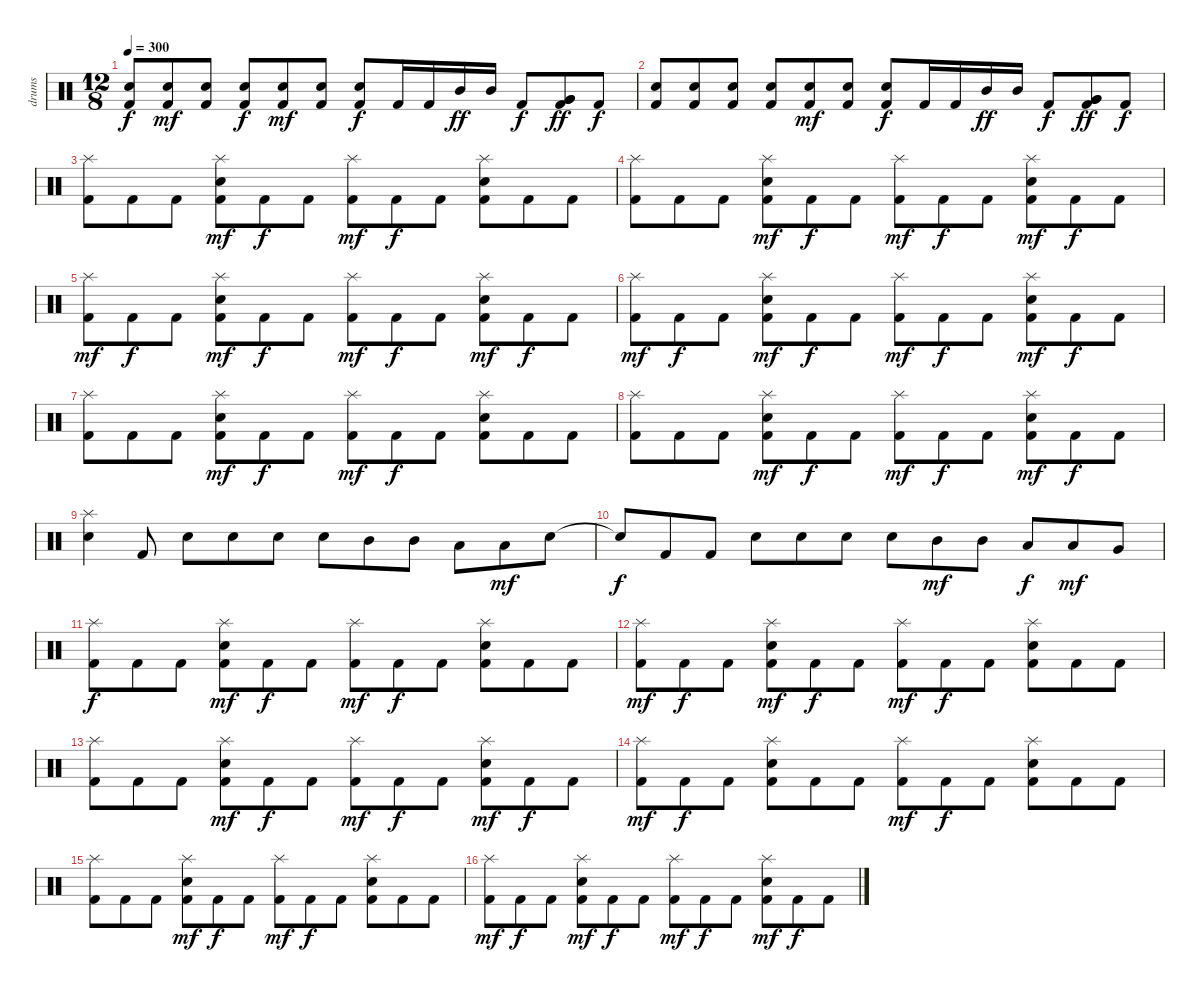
\track ("drums" "drums") {instrument percussion}
\staff {score}
\articulation defaults
\ts (12 8)
\tempo 300
\clef neutral
\ks c
("Snare (hit) 2" "Kick (hit) 2").8{dy f} ("Snare (hit) 2" "Kick (hit) 2").8{dy mf} ("Snare (hit) 2" "Kick (hit) 2").8 ("Snare (hit) 2" "Kick (hit) 2").8{dy f} ("Snare (hit) 2" "Kick (hit) 2").8{dy mf} ("Snare (hit) 2" "Kick (hit) 2").8 ("Snare (hit) 2" "Kick (hit) 2").8{dy f} "Kick (hit) 2".16 "Kick (hit) 2".16 "Mid Tom (hit)".16{dy ff} "Mid Tom (hit)".16 "Kick (hit) 2".8{dy f} ("Very Low Tom (hit)" "Kick (hit) 2" "Very Low Tom (hit)").8{dy ff} "Kick (hit) 2".8{dy f} |
("Snare (hit) 2" "Kick (hit) 2").8 ("Snare (hit) 2" "Kick (hit) 2").8 ("Snare (hit) 2" "Kick (hit) 2").8 ("Snare (hit) 2" "Kick (hit) 2").8 ("Snare (hit) 2" "Kick (hit) 2").8{dy mf} ("Snare (hit) 2" "Kick (hit) 2").8 ("Snare (hit) 2" "Kick (hit) 2").8{dy f} "Kick (hit) 2".16 "Kick (hit) 2".16 "Mid Tom (hit)".16{dy ff} "Mid Tom (hit)".16 "Kick (hit) 2".8{dy f} ("Very Low Tom (hit)" "Kick (hit) 2" "Very Low Tom (hit)").8{dy ff} "Kick (hit) 2".8{dy f} |
("Splash (hit)" "Kick (hit) 2").8 "Kick (hit) 2".8 "Kick (hit) 2".8 ("Splash (hit)" "Snare (hit) 2" "Kick (hit) 2").8{dy mf} "Kick (hit) 2".8{dy f} "Kick (hit) 2".8 ("Splash (hit)" "Kick (hit) 2").8{dy mf} "Kick (hit) 2".8{dy f} "Kick (hit) 2".8 ("Splash (hit)" "Snare (hit) 2" "Kick (hit) 2").8 "Kick (hit) 2".8 "Kick (hit) 2".8 |
("Splash (hit)" "Kick (hit) 2").8 "Kick (hit) 2".8 "Kick (hit) 2".8 ("Splash (hit)" "Snare (hit) 2" "Kick (hit) 2").8{dy mf} "Kick (hit) 2".8{dy f} "Kick (hit) 2".8 ("Splash (hit)" "Kick (hit) 2").8{dy mf} "Kick (hit) 2".8{dy f} "Kick (hit) 2".8 ("Splash (hit)" "Snare (hit) 2" "Kick (hit) 2").8{dy mf} "Kick (hit) 2".8{dy f} "Kick (hit) 2".8 |
("Splash (hit)" "Kick (hit) 2").8{dy mf} "Kick (hit) 2".8{dy f} "Kick (hit) 2".8 ("Splash (hit)" "Snare (hit) 2" "Kick (hit) 2").8{dy mf} "Kick (hit) 2".8{dy f} "Kick (hit) 2".8 ("Splash (hit)" "Kick (hit) 2").8{dy mf} "Kick (hit) 2".8{dy f} "Kick (hit) 2".8 ("Splash (hit)" "Snare (hit) 2" "Kick (hit) 2").8{dy mf} "Kick (hit) 2".8{dy f} "Kick (hit) 2".8 |
("Splash (hit)" "Kick (hit) 2").8{dy mf} "Kick (hit) 2".8{dy f} "Kick (hit) 2".8 ("Splash (hit)" "Snare (hit) 2" "Kick (hit) 2").8{dy mf} "Kick (hit) 2".8{dy f} "Kick (hit) 2".8 ("Splash (hit)" "Kick (hit) 2").8{dy mf} "Kick (hit) 2".8{dy f} "Kick (hit) 2".8 ("Splash (hit)" "Snare (hit) 2" "Kick (hit) 2").8{dy mf} "Kick (hit) 2".8{dy f} "Kick (hit) 2".8 |
("Splash (hit)" "Kick (hit) 2").8 "Kick (hit) 2".8 "Kick (hit) 2".8 ("Splash (hit)" "Snare (hit) 2" "Kick (hit) 2").8{dy mf} "Kick (hit) 2".8{dy f} "Kick (hit) 2".8 ("Splash (hit)" "Kick (hit) 2").8{dy mf} "Kick (hit) 2".8{dy f} "Kick (hit) 2".8 ("Splash (hit)" "Snare (hit) 2" "Kick (hit) 2").8 "Kick (hit) 2".8 "Kick (hit) 2".8 |
("Splash (hit)" "Kick (hit) 2").8 "Kick (hit) 2".8 "Kick (hit) 2".8 ("Splash (hit)" "Snare (hit) 2" "Kick (hit) 2").8{dy mf} "Kick (hit) 2".8{dy f} "Kick (hit) 2".8 ("Splash (hit)" "Kick (hit) 2").8{dy mf} "Kick (hit) 2".8{dy f} "Kick (hit) 2".8 ("Splash (hit)" "Snare (hit) 2" "Kick (hit) 2").8{dy mf} "Kick (hit) 2".8{dy f} "Kick (hit) 2".8 |
("Splash (hit)" "Snare (hit) 2").4 "Kick (hit) 2".8 "Snare (hit) 2".8 "Snare (hit) 2".8 "Snare (hit) 2".8 "Snare (hit) 2".8 "Mid Tom (hit)".8 "Mid Tom (hit)".8 "Low Tom (hit)".8 "Low Tom (hit)".8{dy mf} "Snare (hit) 2".8 |
"Snare (hit)"{t}.8{dy f} "Kick (hit) 2".8 "Kick (hit) 2".8 "Snare (hit) 2".8 "Snare (hit) 2".8 "Snare (hit) 2".8 "Snare (hit) 2".8 "Mid Tom (hit)".8{dy mf} "Mid Tom (hit)".8 "Low Tom (hit)".8{dy f} "Low Tom (hit)".8{dy mf} "Very Low Tom (hit)".8 |
("Splash (hit)" "Kick (hit) 2").8{dy f} "Kick (hit) 2".8 "Kick (hit) 2".8 ("Splash (hit)" "Snare (hit) 2" "Kick (hit) 2").8{dy mf} "Kick (hit) 2".8{dy f} "Kick (hit) 2".8 ("Splash (hit)" "Kick (hit) 2").8{dy mf} "Kick (hit) 2".8{dy f} "Kick (hit) 2".8 ("Splash (hit)" "Snare (hit) 2" "Kick (hit) 2").8 "Kick (hit) 2".8 "Kick (hit) 2".8 |
("Splash (hit)" "Kick (hit) 2").8{dy mf} "Kick (hit) 2".8{dy f} "Kick (hit) 2".8 ("Splash (hit)" "Snare (hit) 2" "Kick (hit) 2").8{dy mf} "Kick (hit) 2".8{dy f} "Kick (hit) 2".8 ("Splash (hit)" "Kick (hit) 2").8{dy mf} "Kick (hit) 2".8{dy f} "Kick (hit) 2".8 ("Splash (hit)" "Snare (hit) 2" "Kick (hit) 2").8 "Kick (hit) 2".8 "Kick (hit) 2".8 |
("Splash (hit)" "Kick (hit) 2").8 "Kick (hit) 2".8 "Kick (hit) 2".8 ("Splash (hit)" "Snare (hit) 2" "Kick (hit) 2").8{dy mf} "Kick (hit) 2".8{dy f} "Kick (hit) 2".8 ("Splash (hit)" "Kick (hit) 2").8{dy mf} "Kick (hit) 2".8{dy f} "Kick (hit) 2".8 ("Splash (hit)" "Snare (hit) 2" "Kick (hit) 2").8{dy mf} "Kick (hit) 2".8{dy f} "Kick (hit) 2".8 |
("Splash (hit)" "Kick (hit) 2").8{dy mf} "Kick (hit) 2".8{dy f} "Kick (hit) 2".8 ("Splash (hit)" "Snare (hit) 2" "Kick (hit) 2").8 "Kick (hit) 2".8 "Kick (hit) 2".8 ("Splash (hit)" "Kick (hit) 2").8{dy mf} "Kick (hit) 2".8{dy f} "Kick (hit) 2".8 ("Splash (hit)" "Snare (hit) 2" "Kick (hit) 2").8 "Kick (hit) 2".8 "Kick (hit) 2".8 |
("Splash (hit)" "Kick (hit) 2").8 "Kick (hit) 2".8 "Kick (hit) 2".8 ("Splash (hit)" "Snare (hit) 2" "Kick (hit) 2").8{dy mf} "Kick (hit) 2".8{dy f} "Kick (hit) 2".8 ("Splash (hit)" "Kick (hit) 2").8{dy mf} "Kick (hit) 2".8{dy f} "Kick (hit) 2".8 ("Splash (hit)" "Snare (hit) 2" "Kick (hit) 2").8 "Kick (hit) 2".8 "Kick (hit) 2".8 |
("Splash (hit)" "Kick (hit) 2").8{dy mf} "Kick (hit) 2".8{dy f} "Kick (hit) 2".8 ("Splash (hit)" "Snare (hit) 2" "Kick (hit) 2").8{dy mf} "Kick (hit) 2".8{dy f} "Kick (hit) 2".8 ("Splash (hit)" "Kick (hit) 2").8{dy mf} "Kick (hit) 2".8{dy f} "Kick (hit) 2".8 ("Splash (hit)" "Snare (hit) 2" "Kick (hit) 2").8{dy mf} "Kick (hit) 2".8{dy f} "Kick (hit) 2".8
